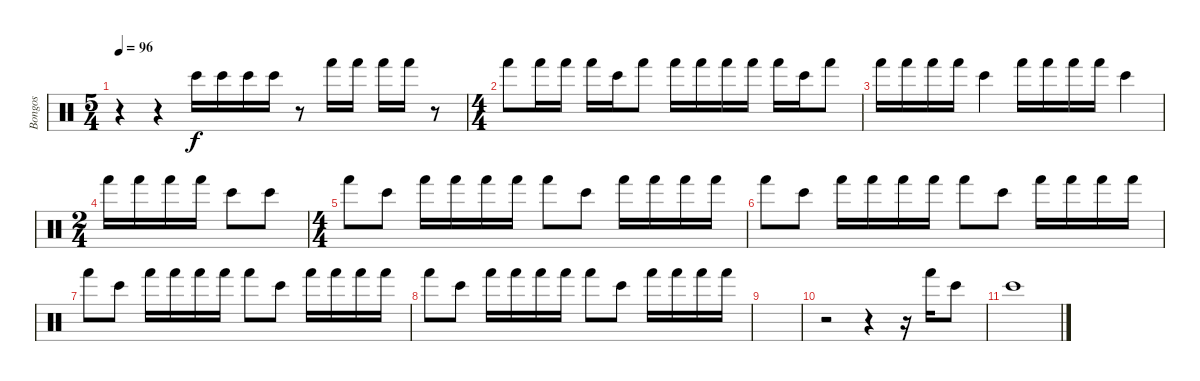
\track ("Bongos" "Bongos") {instrument percussion}
\staff {score}
\articulation defaults
\ts (5 4)
\tempo 96
\clef neutral
\ks c
r.4{dy f} r.4 "Bongo High (hit)".16 "Bongo High (hit)".16 "Bongo High (hit)".16 "Bongo High (hit)".16 r.8 "Hand (hit)".16 "Hand (hit)".16 "Hand (hit)".16 "Hand (hit)".16 r.8 |
\ts (4 4)
"Hand (hit)".8 "Hand (hit)".16 "Hand (hit)".16 "Hand (hit)".16 "Bongo High (hit)".16 "Hand (hit)".8 "Hand (hit)".16 "Hand (hit)".16 "Hand (hit)".16 "Hand (hit)".16 "Hand (hit)".16 "Bongo High (hit)".16 "Hand (hit)".8 |
"Hand (hit)".16 "Hand (hit)".16 "Hand (hit)".16 "Hand (hit)".16 "Bongo High (hit)".4 "Hand (hit)".16 "Hand (hit)".16 "Hand (hit)".16 "Hand (hit)".16 "Bongo High (hit)".4 |
\ts (2 4)
"Hand (hit)".16 "Hand (hit)".16 "Hand (hit)".16 "Hand (hit)".16 "Bongo High (hit)".8 "Bongo High (hit)".8 |
\ts (4 4)
"Hand (hit)".8 "Bongo High (hit)".8 "Hand (hit)".16 "Hand (hit)".16 "Hand (hit)".16 "Hand (hit)".16 "Hand (hit)".8 "Bongo High (hit)".8 "Hand (hit)".16 "Hand (hit)".16 "Hand (hit)".16 "Hand (hit)".16 |
"Hand (hit)".8 "Bongo High (hit)".8 "Hand (hit)".16 "Hand (hit)".16 "Hand (hit)".16 "Hand (hit)".16 "Hand (hit)".8 "Bongo High (hit)".8 "Hand (hit)".16 "Hand (hit)".16 "Hand (hit)".16 "Hand (hit)".16 |
"Hand (hit)".8 "Bongo High (hit)".8 "Hand (hit)".16 "Hand (hit)".16 "Hand (hit)".16 "Hand (hit)".16 "Hand (hit)".8 "Bongo High (hit)".8 "Hand (hit)".16 "Hand (hit)".16 "Hand (hit)".16 "Hand (hit)".16 |
"Hand (hit)".8 "Bongo High (hit)".8 "Hand (hit)".16 "Hand (hit)".16 "Hand (hit)".16 "Hand (hit)".16 "Hand (hit)".8 "Bongo High (hit)".8 "Hand (hit)".16 "Hand (hit)".16 "Hand (hit)".16 "Hand (hit)".16 |
|
r.2 r.4 r.16 "Hand (hit)".16 "Bongo High (hit)".8 |
"Bongo High (hit)".1
